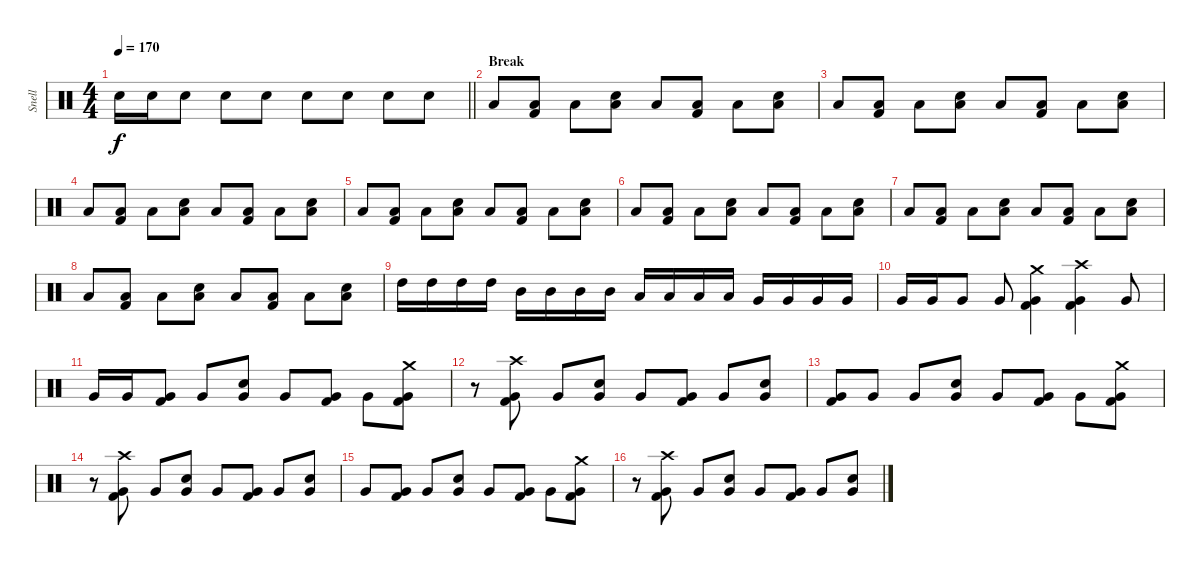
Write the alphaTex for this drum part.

\track ("Snell" "Snell") {instrument percussion}
\staff {score}
\articulation defaults
\ts (4 4)
\tempo 170
\clef neutral
\barLineRight lightlight
\ks c "Electric Snare (hit)".16{dy f} "Electric Snare (hit)".16 "Electric Snare (hit)".8 "Electric Snare (hit)".8 "Electric Snare (hit)".8 "Electric Snare (hit)".8 "Electric Snare (hit)".8 "Electric Snare (hit)".8 "Electric Snare (hit)".8
|
\section ("" "Break")
"Low Tom (hit)".8 ("Low Tom (hit)" "Kick (hit) 2").8 "Low Tom (hit)".8 ("Electric Snare (hit)" "Low Tom (hit)").8 "Low Tom (hit)".8 ("Low Tom (hit)" "Kick (hit) 2").8 "Low Tom (hit)".8 ("Electric Snare (hit)" "Low Tom (hit)").8 |
"Low Tom (hit)".8 ("Low Tom (hit)" "Kick (hit) 2").8 "Low Tom (hit)".8 ("Electric Snare (hit)" "Low Tom (hit)").8 "Low Tom (hit)".8 ("Low Tom (hit)" "Kick (hit) 2").8 "Low Tom (hit)".8 ("Electric Snare (hit)" "Low Tom (hit)").8 |
"Low Tom (hit)".8 ("Low Tom (hit)" "Kick (hit) 2").8 "Low Tom (hit)".8 ("Electric Snare (hit)" "Low Tom (hit)").8 "Low Tom (hit)".8 ("Low Tom (hit)" "Kick (hit) 2").8 "Low Tom (hit)".8 ("Electric Snare (hit)" "Low Tom (hit)").8 |
"Low Tom (hit)".8 ("Low Tom (hit)" "Kick (hit) 2").8 "Low Tom (hit)".8 ("Electric Snare (hit)" "Low Tom (hit)").8 "Low Tom (hit)".8 ("Low Tom (hit)" "Kick (hit) 2").8 "Low Tom (hit)".8 ("Electric Snare (hit)" "Low Tom (hit)").8 |
"Low Tom (hit)".8 ("Low Tom (hit)" "Kick (hit) 2").8 "Low Tom (hit)".8 ("Electric Snare (hit)" "Low Tom (hit)").8 "Low Tom (hit)".8 ("Low Tom (hit)" "Kick (hit) 2").8 "Low Tom (hit)".8 ("Electric Snare (hit)" "Low Tom (hit)").8 |
"Low Tom (hit)".8 ("Low Tom (hit)" "Kick (hit) 2").8 "Low Tom (hit)".8 ("Electric Snare (hit)" "Low Tom (hit)").8 "Low Tom (hit)".8 ("Low Tom (hit)" "Kick (hit) 2").8 "Low Tom (hit)".8 ("Electric Snare (hit)" "Low Tom (hit)").8 |
"Low Tom (hit)".8 ("Low Tom (hit)" "Kick (hit) 2").8 "Low Tom (hit)".8 ("Electric Snare (hit)" "Low Tom (hit)").8 "Low Tom (hit)".8 ("Low Tom (hit)" "Kick (hit) 2").8 "Low Tom (hit)".8 ("Electric Snare (hit)" "Low Tom (hit)").8 |
"High Tom (hit)".16 "High Tom (hit)".16 "High Tom (hit)".16 "High Tom (hit)".16 "Mid Tom (hit)".16 "Mid Tom (hit)".16 "Mid Tom (hit)".16 "Mid Tom (hit)".16 "Low Tom (hit)".16 "Low Tom (hit)".16 "Low Tom (hit)".16 "Low Tom (hit)".16 "Very Low Tom (hit)".16 "Very Low Tom (hit)".16 "Very Low Tom (hit)".16 "Very Low Tom (hit)".16 |
"Very Low Tom (hit)".16 "Very Low Tom (hit)".16 "Very Low Tom (hit)".8 "Very Low Tom (hit)".8 ("Crash medium (hit)" "Very Low Tom (hit)" "Kick (hit) 2").4 ("Crash high (hit)" "Very Low Tom (hit)" "Kick (hit) 2").4 "Very Low Tom (hit)".8 |
"Very Low Tom (hit)".16 "Very Low Tom (hit)".16 ("Very Low Tom (hit)" "Kick (hit) 2").8 "Very Low Tom (hit)".8 ("Electric Snare (hit)" "Very Low Tom (hit)").8 "Very Low Tom (hit)".8 ("Very Low Tom (hit)" "Kick (hit) 2").8 "Very Low Tom (hit)".8 ("Crash medium (hit)" "Very Low Tom (hit)" "Kick (hit) 2").8 |
r.8 ("Crash high (hit)" "Very Low Tom (hit)" "Kick (hit) 2").8 "Very Low Tom (hit)".8 ("Electric Snare (hit)" "Very Low Tom (hit)").8 "Very Low Tom (hit)".8 ("Very Low Tom (hit)" "Kick (hit) 2").8 "Very Low Tom (hit)".8 ("Electric Snare (hit)" "Very Low Tom (hit)").8 |
("Very Low Tom (hit)" "Kick (hit) 2").8 "Very Low Tom (hit)".8 "Very Low Tom (hit)".8 ("Electric Snare (hit)" "Very Low Tom (hit)").8 "Very Low Tom (hit)".8 ("Very Low Tom (hit)" "Kick (hit) 2").8 "Very Low Tom (hit)".8 ("Crash medium (hit)" "Very Low Tom (hit)" "Kick (hit) 2").8 |
r.8 ("Crash high (hit)" "Very Low Tom (hit)" "Kick (hit) 2").8 "Very Low Tom (hit)".8 ("Electric Snare (hit)" "Very Low Tom (hit)").8 "Very Low Tom (hit)".8 ("Very Low Tom (hit)" "Kick (hit) 2").8 "Very Low Tom (hit)".8 ("Electric Snare (hit)" "Very Low Tom (hit)").8 |
"Very Low Tom (hit)".8 ("Very Low Tom (hit)" "Kick (hit) 2").8 "Very Low Tom (hit)".8 ("Electric Snare (hit)" "Very Low Tom (hit)").8 "Very Low Tom (hit)".8 ("Very Low Tom (hit)" "Kick (hit) 2").8 "Very Low Tom (hit)".8 ("Crash medium (hit)" "Very Low Tom (hit)" "Kick (hit) 2").8 |
r.8 ("Crash high (hit)" "Very Low Tom (hit)" "Kick (hit) 2").8 "Very Low Tom (hit)".8 ("Electric Snare (hit)" "Very Low Tom (hit)").8 "Very Low Tom (hit)".8 ("Very Low Tom (hit)" "Kick (hit) 2").8 "Very Low Tom (hit)".8 ("Electric Snare (hit)" "Very Low Tom (hit)").8
